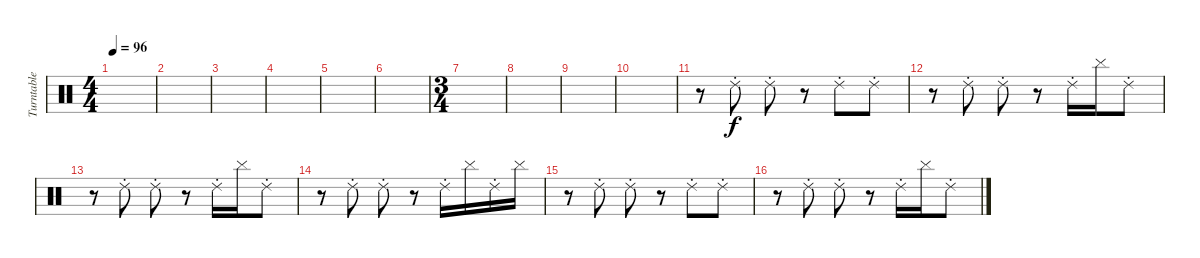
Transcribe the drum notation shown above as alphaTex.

\track ("Turntable" "Turntable") {instrument percussion}
\staff {score}
\articulation defaults
\ts (4 4)
\tempo 96
\clef neutral
\ks c
|
|
|
|
|
|
\ts (3 4)
|
|
|
|
r.8 "Ride (choke) 2".8 "Ride (choke) 2".8 r.8 "Ride (choke) 2".8 "Ride (choke) 2".8 |
r.8 "Ride (choke) 2".8 "Ride (choke) 2".8 r.8 "Ride (choke) 2".16 "Cymbal (hit)".16 "Ride (choke) 2".8 |
r.8 "Ride (choke) 2".8 "Ride (choke) 2".8 r.8 "Ride (choke) 2".16 "Cymbal (hit)".16 "Ride (choke) 2".8 |
r.8 "Ride (choke) 2".8 "Ride (choke) 2".8 r.8 "Ride (choke) 2".16 "Cymbal (hit)".16 "Ride (choke) 2".16 "Cymbal (hit)".16 |
r.8 "Ride (choke) 2".8 "Ride (choke) 2".8 r.8 "Ride (choke) 2".8 "Ride (choke) 2".8 |
r.8 "Ride (choke) 2".8 "Ride (choke) 2".8 r.8 "Ride (choke) 2".16 "Cymbal (hit)".16 "Ride (choke) 2".8
